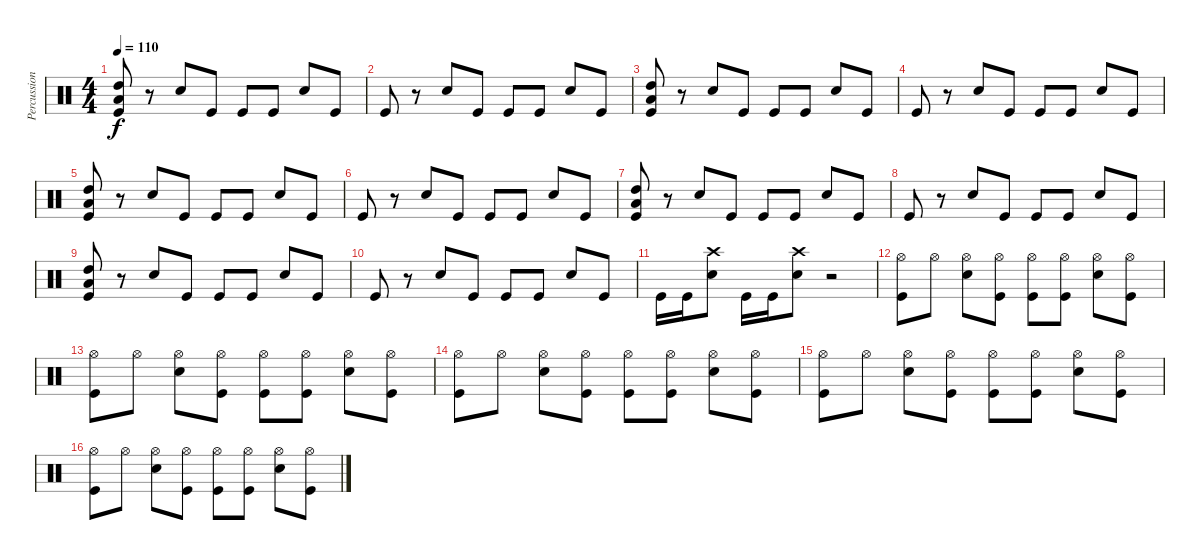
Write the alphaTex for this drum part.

\track ("Percussion" "Percussion") {instrument percussion}
\staff {score}
\articulation defaults
\ts (4 4)
\tempo 110
\clef neutral
\ks c
("Kick (hit)" "Low Tom (hit)" "High Tom (hit)").8{dy f} r.8 "Snare (hit) 2".8 "Kick (hit)".8 "Kick (hit)".8 "Kick (hit)".8 "Snare (hit) 2".8 "Kick (hit)".8 |
"Kick (hit)".8 r.8 "Snare (hit) 2".8 "Kick (hit)".8 "Kick (hit)".8 "Kick (hit)".8 "Snare (hit) 2".8 "Kick (hit)".8 |
("Kick (hit)" "Low Tom (hit)" "High Tom (hit)").8 r.8 "Snare (hit) 2".8 "Kick (hit)".8 "Kick (hit)".8 "Kick (hit)".8 "Snare (hit) 2".8 "Kick (hit)".8 |
"Kick (hit)".8 r.8 "Snare (hit) 2".8 "Kick (hit)".8 "Kick (hit)".8 "Kick (hit)".8 "Snare (hit) 2".8 "Kick (hit)".8 |
("Kick (hit)" "Low Tom (hit)" "High Tom (hit)").8 r.8 "Snare (hit) 2".8 "Kick (hit)".8 "Kick (hit)".8 "Kick (hit)".8 "Snare (hit) 2".8 "Kick (hit)".8 |
"Kick (hit)".8 r.8 "Snare (hit) 2".8 "Kick (hit)".8 "Kick (hit)".8 "Kick (hit)".8 "Snare (hit) 2".8 "Kick (hit)".8 |
("Kick (hit)" "Low Tom (hit)" "High Tom (hit)").8 r.8 "Snare (hit) 2".8 "Kick (hit)".8 "Kick (hit)".8 "Kick (hit)".8 "Snare (hit) 2".8 "Kick (hit)".8 |
"Kick (hit)".8 r.8 "Snare (hit) 2".8 "Kick (hit)".8 "Kick (hit)".8 "Kick (hit)".8 "Snare (hit) 2".8 "Kick (hit)".8 |
("Kick (hit)" "Low Tom (hit)" "High Tom (hit)").8 r.8 "Snare (hit) 2".8 "Kick (hit)".8 "Kick (hit)".8 "Kick (hit)".8 "Snare (hit) 2".8 "Kick (hit)".8 |
"Kick (hit)".8 r.8 "Snare (hit) 2".8 "Kick (hit)".8 "Kick (hit)".8 "Kick (hit)".8 "Snare (hit) 2".8 "Kick (hit)".8 |
"Kick (hit)".16 "Kick (hit)".16 ("Crash high (hit)" "Snare (hit) 2").8 "Kick (hit)".16 "Kick (hit)".16 ("Crash high (hit)" "Snare (hit) 2").8 r.2 |
("Hi-Hat (open)" "Kick (hit)").8 "Hi-Hat (open)".8 ("Snare (hit) 2" "Hi-Hat (open)").8 ("Hi-Hat (open)" "Kick (hit)").8 ("Hi-Hat (open)" "Kick (hit)").8 ("Hi-Hat (open)" "Kick (hit)").8 ("Snare (hit) 2" "Hi-Hat (open)").8 ("Hi-Hat (open)" "Kick (hit)").8 |
("Hi-Hat (open)" "Kick (hit)").8 "Hi-Hat (open)".8 ("Snare (hit) 2" "Hi-Hat (open)").8 ("Hi-Hat (open)" "Kick (hit)").8 ("Hi-Hat (open)" "Kick (hit)").8 ("Hi-Hat (open)" "Kick (hit)").8 ("Snare (hit) 2" "Hi-Hat (open)").8 ("Hi-Hat (open)" "Kick (hit)").8 |
("Hi-Hat (open)" "Kick (hit)").8 "Hi-Hat (open)".8 ("Snare (hit) 2" "Hi-Hat (open)").8 ("Hi-Hat (open)" "Kick (hit)").8 ("Hi-Hat (open)" "Kick (hit)").8 ("Hi-Hat (open)" "Kick (hit)").8 ("Snare (hit) 2" "Hi-Hat (open)").8 ("Hi-Hat (open)" "Kick (hit)").8 |
("Hi-Hat (open)" "Kick (hit)").8 "Hi-Hat (open)".8 ("Snare (hit) 2" "Hi-Hat (open)").8 ("Hi-Hat (open)" "Kick (hit)").8 ("Hi-Hat (open)" "Kick (hit)").8 ("Hi-Hat (open)" "Kick (hit)").8 ("Snare (hit) 2" "Hi-Hat (open)").8 ("Hi-Hat (open)" "Kick (hit)").8 |
("Hi-Hat (open)" "Kick (hit)").8 "Hi-Hat (open)".8 ("Snare (hit) 2" "Hi-Hat (open)").8 ("Hi-Hat (open)" "Kick (hit)").8 ("Hi-Hat (open)" "Kick (hit)").8 ("Hi-Hat (open)" "Kick (hit)").8 ("Snare (hit) 2" "Hi-Hat (open)").8 ("Hi-Hat (open)" "Kick (hit)").8
